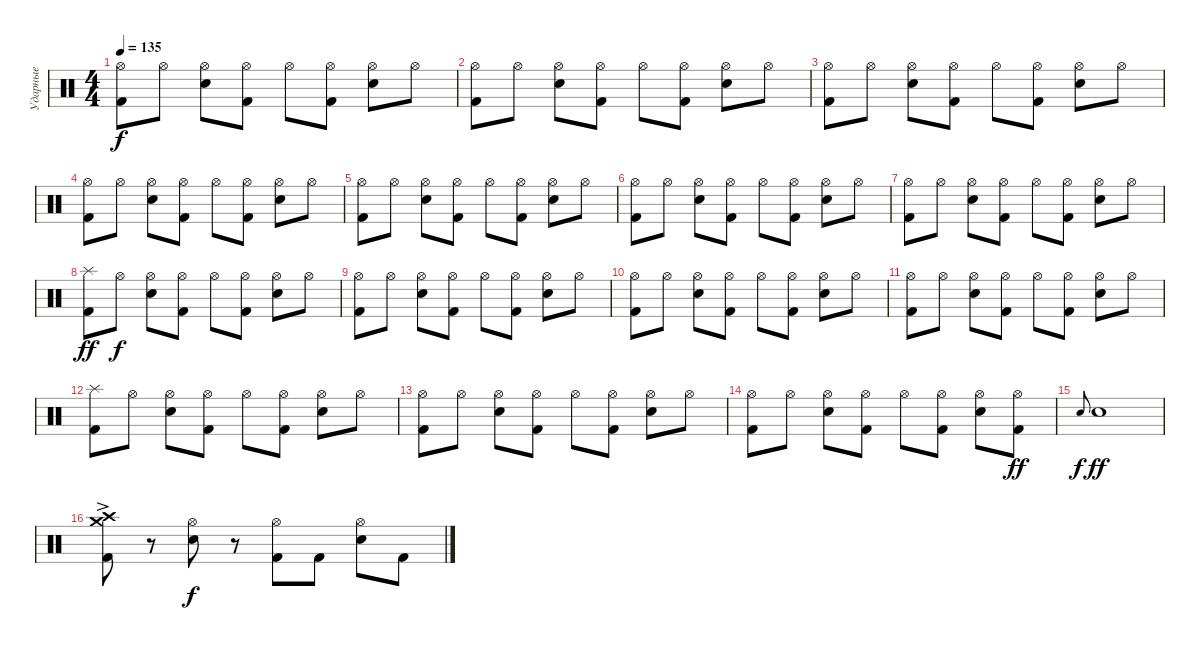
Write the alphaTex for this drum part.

\track ("Ударные" "Ударные") {instrument percussion}
\staff
\articulation defaults
\ts (4 4)
\tempo 135
\clef neutral
\ks c
("Hi-Hat (open)" "Kick (hit) 2").8{dy f} "Hi-Hat (open)".8 ("Hi-Hat (open)" "Electric Snare (hit)").8 ("Hi-Hat (open)" "Kick (hit) 2").8 "Hi-Hat (open)".8 ("Hi-Hat (open)" "Kick (hit) 2").8 ("Hi-Hat (open)" "Electric Snare (hit)").8 "Hi-Hat (open)".8 |
("Hi-Hat (open)" "Kick (hit) 2").8 "Hi-Hat (open)".8 ("Hi-Hat (open)" "Electric Snare (hit)").8 ("Hi-Hat (open)" "Kick (hit) 2").8 "Hi-Hat (open)".8 ("Hi-Hat (open)" "Kick (hit) 2").8 ("Hi-Hat (open)" "Electric Snare (hit)").8 "Hi-Hat (open)".8 |
("Hi-Hat (open)" "Kick (hit) 2").8 "Hi-Hat (open)".8 ("Hi-Hat (open)" "Electric Snare (hit)").8 ("Hi-Hat (open)" "Kick (hit) 2").8 "Hi-Hat (open)".8 ("Hi-Hat (open)" "Kick (hit) 2").8 ("Hi-Hat (open)" "Electric Snare (hit)").8 "Hi-Hat (open)".8 |
("Hi-Hat (open)" "Kick (hit) 2").8 "Hi-Hat (open)".8 ("Hi-Hat (open)" "Electric Snare (hit)").8 ("Hi-Hat (open)" "Kick (hit) 2").8 "Hi-Hat (open)".8 ("Hi-Hat (open)" "Kick (hit) 2").8 ("Hi-Hat (open)" "Electric Snare (hit)").8 "Hi-Hat (open)".8 |
("Hi-Hat (open)" "Kick (hit) 2").8 "Hi-Hat (open)".8 ("Hi-Hat (open)" "Electric Snare (hit)").8 ("Hi-Hat (open)" "Kick (hit) 2").8 "Hi-Hat (open)".8 ("Hi-Hat (open)" "Kick (hit) 2").8 ("Hi-Hat (open)" "Electric Snare (hit)").8 "Hi-Hat (open)".8 |
("Hi-Hat (open)" "Kick (hit) 2").8 "Hi-Hat (open)".8 ("Hi-Hat (open)" "Electric Snare (hit)").8 ("Hi-Hat (open)" "Kick (hit) 2").8 "Hi-Hat (open)".8 ("Hi-Hat (open)" "Kick (hit) 2").8 ("Hi-Hat (open)" "Electric Snare (hit)").8 "Hi-Hat (open)".8 |
("Hi-Hat (open)" "Kick (hit) 2").8 "Hi-Hat (open)".8 ("Hi-Hat (open)" "Electric Snare (hit)").8 ("Hi-Hat (open)" "Kick (hit) 2").8 "Hi-Hat (open)".8 ("Hi-Hat (open)" "Kick (hit) 2").8 ("Hi-Hat (open)" "Electric Snare (hit)").8 "Hi-Hat (open)".8 |
("Splash (hit)" "Kick (hit) 2").8{dy ff} "Hi-Hat (open)".8{dy f} ("Hi-Hat (open)" "Electric Snare (hit)").8 ("Hi-Hat (open)" "Kick (hit) 2").8 "Hi-Hat (open)".8 ("Hi-Hat (open)" "Kick (hit) 2").8 ("Hi-Hat (open)" "Electric Snare (hit)").8 "Hi-Hat (open)".8 |
("Hi-Hat (open)" "Kick (hit) 2").8 "Hi-Hat (open)".8 ("Hi-Hat (open)" "Electric Snare (hit)").8 ("Hi-Hat (open)" "Kick (hit) 2").8 "Hi-Hat (open)".8 ("Hi-Hat (open)" "Kick (hit) 2").8 ("Hi-Hat (open)" "Electric Snare (hit)").8 "Hi-Hat (open)".8 |
("Hi-Hat (open)" "Kick (hit) 2").8 "Hi-Hat (open)".8 ("Hi-Hat (open)" "Electric Snare (hit)").8 ("Hi-Hat (open)" "Kick (hit) 2").8 "Hi-Hat (open)".8 ("Hi-Hat (open)" "Kick (hit) 2").8 ("Hi-Hat (open)" "Electric Snare (hit)").8 "Hi-Hat (open)".8 |
("Hi-Hat (open)" "Kick (hit) 2").8 "Hi-Hat (open)".8 ("Hi-Hat (open)" "Electric Snare (hit)").8 ("Hi-Hat (open)" "Kick (hit) 2").8 "Hi-Hat (open)".8 ("Hi-Hat (open)" "Kick (hit) 2").8 ("Hi-Hat (open)" "Electric Snare (hit)").8 "Hi-Hat (open)".8 |
("Splash (hit)" "Kick (hit) 2").8 "Hi-Hat (open)".8 ("Hi-Hat (open)" "Electric Snare (hit)").8 ("Hi-Hat (open)" "Kick (hit) 2").8 "Hi-Hat (open)".8 ("Hi-Hat (open)" "Kick (hit) 2").8 ("Hi-Hat (open)" "Electric Snare (hit)").8 "Hi-Hat (open)".8 |
("Hi-Hat (open)" "Kick (hit) 2").8 "Hi-Hat (open)".8 ("Hi-Hat (open)" "Electric Snare (hit)").8 ("Hi-Hat (open)" "Kick (hit) 2").8 "Hi-Hat (open)".8 ("Hi-Hat (open)" "Kick (hit) 2").8 ("Hi-Hat (open)" "Electric Snare (hit)").8 "Hi-Hat (open)".8 |
("Hi-Hat (open)" "Kick (hit) 2").8 "Hi-Hat (open)".8 ("Hi-Hat (open)" "Electric Snare (hit)").8 ("Hi-Hat (open)" "Kick (hit) 2").8 "Hi-Hat (open)".8 ("Hi-Hat (open)" "Kick (hit) 2").8 ("Hi-Hat (open)" "Electric Snare (hit)").8 ("Hi-Hat (open)" "Kick (hit) 2").8{dy ff} |
"Electric Snare (hit)".8{gr onbeat dy f} "Electric Snare (hit)".1{dy ff} |
("Crash high (hit)"{ac} "Crash medium (hit)" "Kick (hit) 2").8 r.8 ("Hi-Hat (open)" "Electric Snare (hit)").8{dy f} r.8 ("Hi-Hat (open)" "Kick (hit) 2").8 "Kick (hit) 2".8 ("Hi-Hat (open)" "Electric Snare (hit)").8 "Kick (hit) 2".8
